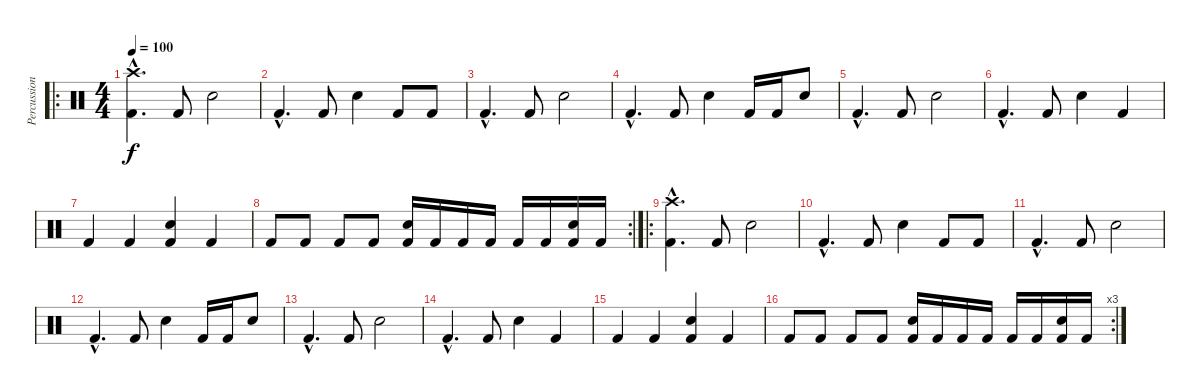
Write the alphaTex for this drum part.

\track ("Percussions" "Percussion") {instrument percussion}
\staff {score}
\articulation defaults
\ro
\ts (4 4)
\tempo 100
\clef neutral
\ks c
("Crash high (hit)"{hac} "Kick (hit) 2"{hac}).4{d dy f} "Kick (hit) 2".8 "Snare (hit) 2".2 |
"Kick (hit) 2"{hac}.4{d} "Kick (hit) 2".8 "Snare (hit) 2".4 "Kick (hit) 2".8 "Kick (hit) 2".8 |
"Kick (hit) 2"{hac}.4{d} "Kick (hit) 2".8 "Snare (hit) 2".2 |
"Kick (hit) 2"{hac}.4{d} "Kick (hit) 2".8 "Snare (hit) 2".4 "Kick (hit) 2".16 "Kick (hit) 2".16 "Snare (hit) 2".8 |
"Kick (hit) 2"{hac}.4{d} "Kick (hit) 2".8 "Snare (hit) 2".2 |
"Kick (hit) 2"{hac}.4{d} "Kick (hit) 2".8 "Snare (hit) 2".4 "Kick (hit) 2".4 |
"Kick (hit) 2".4 "Kick (hit) 2".4 ("Snare (hit) 2" "Kick (hit) 2").4 "Kick (hit) 2".4 |
\rc 2 "Kick (hit) 2".8 "Kick (hit) 2".8 "Kick (hit) 2".8 "Kick (hit) 2".8
("Snare (hit) 2" "Kick (hit) 2").16 "Kick (hit) 2".16 "Kick (hit) 2".16 "Kick (hit) 2".16 "Kick (hit) 2".16 "Kick (hit) 2".16 ("Snare (hit) 2" "Kick (hit) 2").16 "Kick (hit) 2".16 |
\ro
("Crash high (hit)"{hac} "Kick (hit) 2"{hac}).4{d} "Kick (hit) 2".8 "Snare (hit) 2".2 |
"Kick (hit) 2"{hac}.4{d} "Kick (hit) 2".8 "Snare (hit) 2".4 "Kick (hit) 2".8 "Kick (hit) 2".8 |
"Kick (hit) 2"{hac}.4{d} "Kick (hit) 2".8 "Snare (hit) 2".2 |
"Kick (hit) 2"{hac}.4{d} "Kick (hit) 2".8 "Snare (hit) 2".4 "Kick (hit) 2".16 "Kick (hit) 2".16 "Snare (hit) 2".8 |
"Kick (hit) 2"{hac}.4{d} "Kick (hit) 2".8 "Snare (hit) 2".2 |
"Kick (hit) 2"{hac}.4{d} "Kick (hit) 2".8 "Snare (hit) 2".4 "Kick (hit) 2".4 |
"Kick (hit) 2".4 "Kick (hit) 2".4 ("Snare (hit) 2" "Kick (hit) 2").4 "Kick (hit) 2".4 |
\rc 3 "Kick (hit) 2".8 "Kick (hit) 2".8 "Kick (hit) 2".8 "Kick (hit) 2".8
("Snare (hit) 2" "Kick (hit) 2").16 "Kick (hit) 2".16 "Kick (hit) 2".16 "Kick (hit) 2".16 "Kick (hit) 2".16 "Kick (hit) 2".16 ("Snare (hit) 2" "Kick (hit) 2").16 "Kick (hit) 2".16
